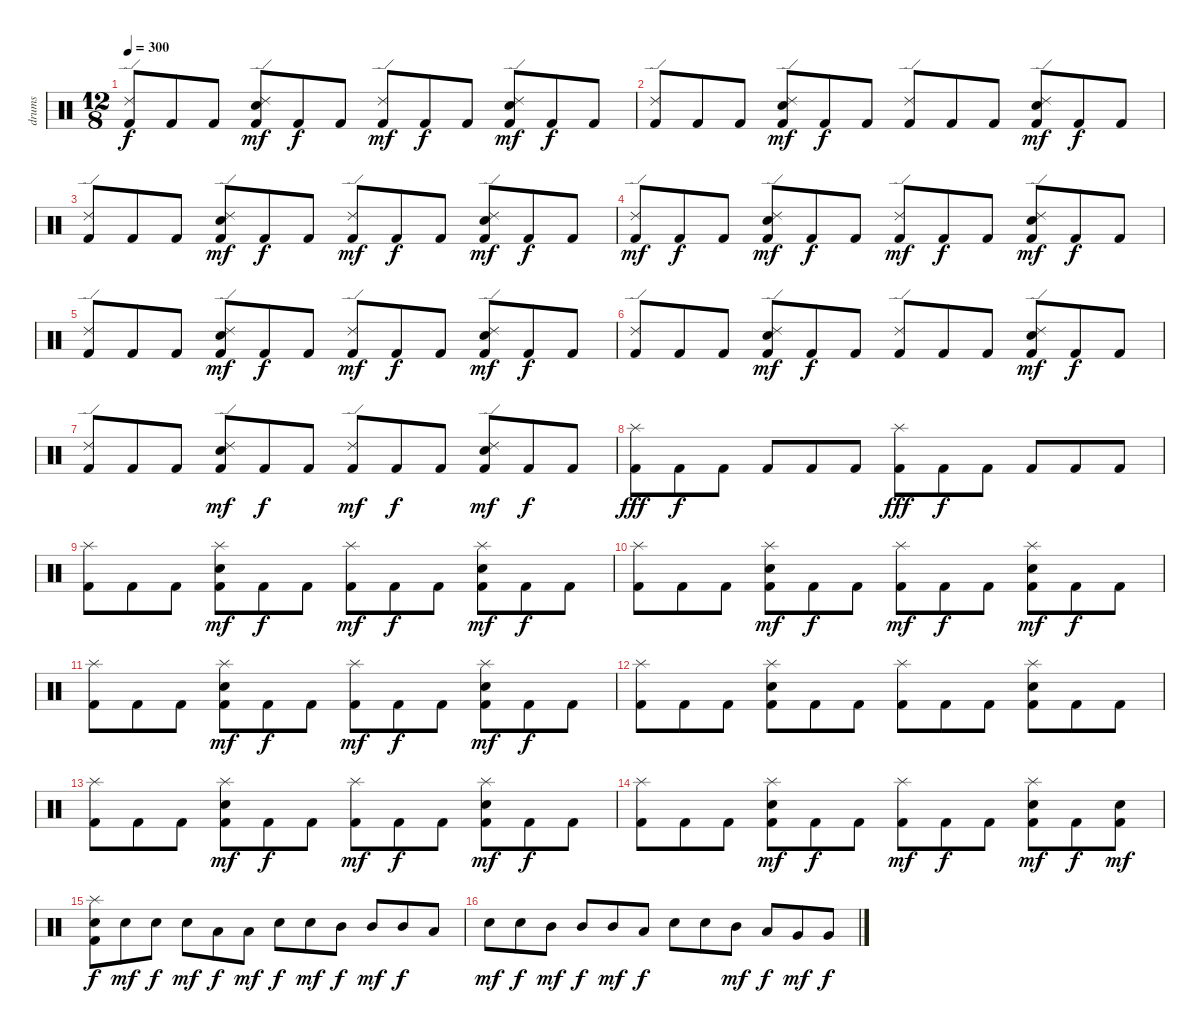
\track ("drums" "drums") {instrument percussion}
\staff {score}
\articulation defaults
\ts (12 8)
\tempo 300
\clef neutral
\ks c
("Ride (edge) 2" "Kick (hit) 2").8{dy f} "Kick (hit) 2".8 "Kick (hit) 2".8 ("Ride (edge) 2" "Snare (hit) 2" "Kick (hit) 2").8{dy mf} "Kick (hit) 2".8{dy f} "Kick (hit) 2".8 ("Ride (edge) 2" "Kick (hit) 2").8{dy mf} "Kick (hit) 2".8{dy f} "Kick (hit) 2".8 ("Ride (edge) 2" "Snare (hit) 2" "Kick (hit) 2").8{dy mf} "Kick (hit) 2".8{dy f} "Kick (hit) 2".8 |
("Ride (edge) 2" "Kick (hit) 2").8 "Kick (hit) 2".8 "Kick (hit) 2".8 ("Ride (edge) 2" "Snare (hit) 2" "Kick (hit) 2").8{dy mf} "Kick (hit) 2".8{dy f} "Kick (hit) 2".8 ("Ride (edge) 2" "Kick (hit) 2").8 "Kick (hit) 2".8 "Kick (hit) 2".8 ("Ride (edge) 2" "Snare (hit) 2" "Kick (hit) 2").8{dy mf} "Kick (hit) 2".8{dy f} "Kick (hit) 2".8 |
("Ride (edge) 2" "Kick (hit) 2").8 "Kick (hit) 2".8 "Kick (hit) 2".8 ("Ride (edge) 2" "Snare (hit) 2" "Kick (hit) 2").8{dy mf} "Kick (hit) 2".8{dy f} "Kick (hit) 2".8 ("Ride (edge) 2" "Kick (hit) 2").8{dy mf} "Kick (hit) 2".8{dy f} "Kick (hit) 2".8 ("Ride (edge) 2" "Snare (hit) 2" "Kick (hit) 2").8{dy mf} "Kick (hit) 2".8{dy f} "Kick (hit) 2".8 |
("Ride (edge) 2" "Kick (hit) 2").8{dy mf} "Kick (hit) 2".8{dy f} "Kick (hit) 2".8 ("Ride (edge) 2" "Snare (hit) 2" "Kick (hit) 2").8{dy mf} "Kick (hit) 2".8{dy f} "Kick (hit) 2".8 ("Ride (edge) 2" "Kick (hit) 2").8{dy mf} "Kick (hit) 2".8{dy f} "Kick (hit) 2".8 ("Ride (edge) 2" "Snare (hit) 2" "Kick (hit) 2").8{dy mf} "Kick (hit) 2".8{dy f} "Kick (hit) 2".8 |
("Ride (edge) 2" "Kick (hit) 2").8 "Kick (hit) 2".8 "Kick (hit) 2".8 ("Ride (edge) 2" "Snare (hit) 2" "Kick (hit) 2").8{dy mf} "Kick (hit) 2".8{dy f} "Kick (hit) 2".8 ("Ride (edge) 2" "Kick (hit) 2").8{dy mf} "Kick (hit) 2".8{dy f} "Kick (hit) 2".8 ("Ride (edge) 2" "Snare (hit) 2" "Kick (hit) 2").8{dy mf} "Kick (hit) 2".8{dy f} "Kick (hit) 2".8 |
("Ride (edge) 2" "Kick (hit) 2").8 "Kick (hit) 2".8 "Kick (hit) 2".8 ("Ride (edge) 2" "Snare (hit) 2" "Kick (hit) 2").8{dy mf} "Kick (hit) 2".8{dy f} "Kick (hit) 2".8 ("Ride (edge) 2" "Kick (hit) 2").8 "Kick (hit) 2".8 "Kick (hit) 2".8 ("Ride (edge) 2" "Snare (hit) 2" "Kick (hit) 2").8{dy mf} "Kick (hit) 2".8{dy f} "Kick (hit) 2".8 |
("Ride (edge) 2" "Kick (hit) 2").8 "Kick (hit) 2".8 "Kick (hit) 2".8 ("Ride (edge) 2" "Snare (hit) 2" "Kick (hit) 2").8{dy mf} "Kick (hit) 2".8{dy f} "Kick (hit) 2".8 ("Ride (edge) 2" "Kick (hit) 2").8{dy mf} "Kick (hit) 2".8{dy f} "Kick (hit) 2".8 ("Ride (edge) 2" "Snare (hit) 2" "Kick (hit) 2").8{dy mf} "Kick (hit) 2".8{dy f} "Kick (hit) 2".8 |
("Splash (hit)" "Kick (hit) 2").8{dy fff} "Kick (hit) 2".8{dy f} "Kick (hit) 2".8 "Kick (hit) 2".8 "Kick (hit) 2".8 "Kick (hit) 2".8 ("Splash (hit)" "Kick (hit) 2").8{dy fff} "Kick (hit) 2".8{dy f} "Kick (hit) 2".8 "Kick (hit) 2".8 "Kick (hit) 2".8 "Kick (hit) 2".8 |
("Splash (hit)" "Kick (hit) 2").8 "Kick (hit) 2".8 "Kick (hit) 2".8 ("Splash (hit)" "Snare (hit) 2" "Kick (hit) 2").8{dy mf} "Kick (hit) 2".8{dy f} "Kick (hit) 2".8 ("Splash (hit)" "Kick (hit) 2").8{dy mf} "Kick (hit) 2".8{dy f} "Kick (hit) 2".8 ("Splash (hit)" "Snare (hit) 2" "Kick (hit) 2").8{dy mf} "Kick (hit) 2".8{dy f} "Kick (hit) 2".8 |
("Splash (hit)" "Kick (hit) 2").8 "Kick (hit) 2".8 "Kick (hit) 2".8 ("Splash (hit)" "Snare (hit) 2" "Kick (hit) 2").8{dy mf} "Kick (hit) 2".8{dy f} "Kick (hit) 2".8 ("Splash (hit)" "Kick (hit) 2").8{dy mf} "Kick (hit) 2".8{dy f} "Kick (hit) 2".8 ("Splash (hit)" "Snare (hit) 2" "Kick (hit) 2").8{dy mf} "Kick (hit) 2".8{dy f} "Kick (hit) 2".8 |
("Splash (hit)" "Kick (hit) 2").8 "Kick (hit) 2".8 "Kick (hit) 2".8 ("Splash (hit)" "Snare (hit) 2" "Kick (hit) 2").8{dy mf} "Kick (hit) 2".8{dy f} "Kick (hit) 2".8 ("Splash (hit)" "Kick (hit) 2").8{dy mf} "Kick (hit) 2".8{dy f} "Kick (hit) 2".8 ("Splash (hit)" "Snare (hit) 2" "Kick (hit) 2").8{dy mf} "Kick (hit) 2".8{dy f} "Kick (hit) 2".8 |
("Splash (hit)" "Kick (hit) 2").8 "Kick (hit) 2".8 "Kick (hit) 2".8 ("Splash (hit)" "Snare (hit) 2" "Kick (hit) 2").8 "Kick (hit) 2".8 "Kick (hit) 2".8 ("Splash (hit)" "Kick (hit) 2").8 "Kick (hit) 2".8 "Kick (hit) 2".8 ("Splash (hit)" "Snare (hit) 2" "Kick (hit) 2").8 "Kick (hit) 2".8 "Kick (hit) 2".8 |
("Splash (hit)" "Kick (hit) 2").8 "Kick (hit) 2".8 "Kick (hit) 2".8 ("Splash (hit)" "Snare (hit) 2" "Kick (hit) 2").8{dy mf} "Kick (hit) 2".8{dy f} "Kick (hit) 2".8 ("Splash (hit)" "Kick (hit) 2").8{dy mf} "Kick (hit) 2".8{dy f} "Kick (hit) 2".8 ("Splash (hit)" "Snare (hit) 2" "Kick (hit) 2").8{dy mf} "Kick (hit) 2".8{dy f} "Kick (hit) 2".8 |
("Splash (hit)" "Kick (hit) 2").8 "Kick (hit) 2".8 "Kick (hit) 2".8 ("Splash (hit)" "Snare (hit) 2" "Kick (hit) 2").8{dy mf} "Kick (hit) 2".8{dy f} "Kick (hit) 2".8 ("Splash (hit)" "Kick (hit) 2").8{dy mf} "Kick (hit) 2".8{dy f} "Kick (hit) 2".8 ("Splash (hit)" "Snare (hit) 2" "Kick (hit) 2").8{dy mf} "Kick (hit) 2".8{dy f} ("Snare (hit) 2" "Kick (hit) 2").8{dy mf} |
("Splash (hit)" "Snare (hit) 2" "Kick (hit) 2").8{dy f} "Snare (hit) 2".8{dy mf} "Snare (hit) 2".8{dy f} "Snare (hit) 2".8{dy mf} "Low Tom (hit)".8{dy f} "Low Tom (hit)".8{dy mf} "Snare (hit) 2".8{dy f} "Snare (hit) 2".8{dy mf} "Mid Tom (hit)".8{dy f} "Mid Tom (hit)".8{dy mf} "Mid Tom (hit)".8{dy f} "Low Tom (hit)".8 |
"Snare (hit) 2".8{dy mf} "Snare (hit) 2".8{dy f} "Mid Tom (hit)".8{dy mf} "Mid Tom (hit)".8{dy f} "Mid Tom (hit)".8{dy mf} "Low Tom (hit)".8{dy f} "Snare (hit) 2".8 "Snare (hit) 2".8 "Mid Tom (hit)".8{dy mf} "Low Tom (hit)".8{dy f} "Very Low Tom (hit)".8{dy mf} "Very Low Tom (hit)".8{dy f}
